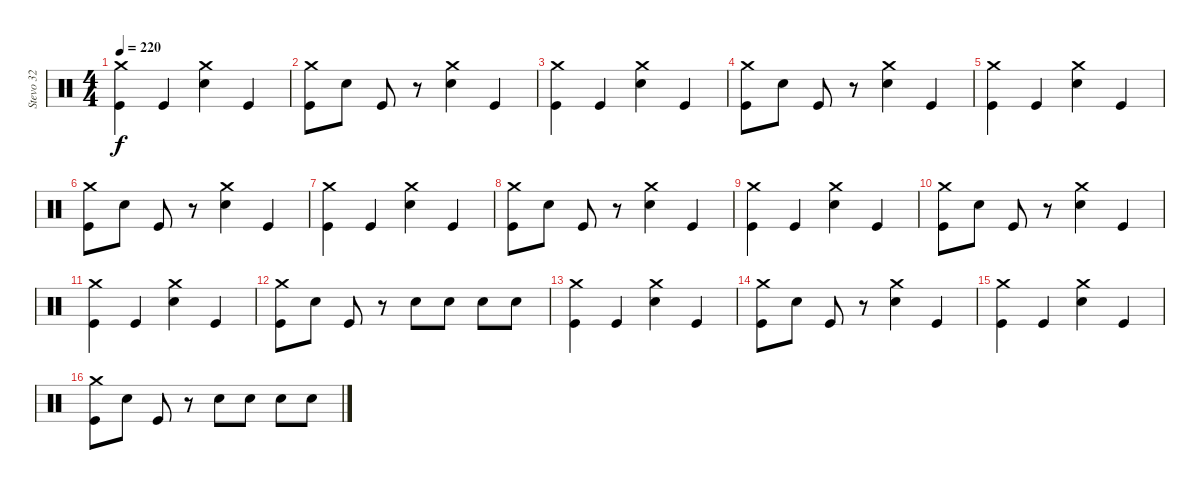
\track ("Stevo 32" "Stevo 32") {instrument percussion}
\staff {score}
\articulation defaults
\ts (4 4)
\tempo 220
\clef neutral
\ks c
("Crash medium (hit)" "Kick (hit)").4{dy f} "Kick (hit)".4 ("Crash medium (hit)" "Snare (hit) 2").4 "Kick (hit)".4 |
("Crash medium (hit)" "Kick (hit)").8 "Snare (hit) 2".8 "Kick (hit)".8 r.8 ("Crash medium (hit)" "Snare (hit) 2").4 "Kick (hit)".4 |
("Crash medium (hit)" "Kick (hit)").4 "Kick (hit)".4 ("Crash medium (hit)" "Snare (hit) 2").4 "Kick (hit)".4 |
("Crash medium (hit)" "Kick (hit)").8 "Snare (hit) 2".8 "Kick (hit)".8 r.8 ("Crash medium (hit)" "Snare (hit) 2").4 "Kick (hit)".4 |
("Crash medium (hit)" "Kick (hit)").4 "Kick (hit)".4 ("Crash medium (hit)" "Snare (hit) 2").4 "Kick (hit)".4 |
("Crash medium (hit)" "Kick (hit)").8 "Snare (hit) 2".8 "Kick (hit)".8 r.8 ("Crash medium (hit)" "Snare (hit) 2").4 "Kick (hit)".4 |
("Crash medium (hit)" "Kick (hit)").4 "Kick (hit)".4 ("Crash medium (hit)" "Snare (hit) 2").4 "Kick (hit)".4 |
("Crash medium (hit)" "Kick (hit)").8 "Snare (hit) 2".8 "Kick (hit)".8 r.8 ("Crash medium (hit)" "Snare (hit) 2").4 "Kick (hit)".4 |
("Crash medium (hit)" "Kick (hit)").4 "Kick (hit)".4 ("Crash medium (hit)" "Snare (hit) 2").4 "Kick (hit)".4 |
("Crash medium (hit)" "Kick (hit)").8 "Snare (hit) 2".8 "Kick (hit)".8 r.8 ("Crash medium (hit)" "Snare (hit) 2").4 "Kick (hit)".4 |
("Crash medium (hit)" "Kick (hit)").4 "Kick (hit)".4 ("Crash medium (hit)" "Snare (hit) 2").4 "Kick (hit)".4 |
("Crash medium (hit)" "Kick (hit)").8 "Snare (hit) 2".8 "Kick (hit)".8 r.8 "Snare (hit) 2".8 "Snare (hit) 2".8 "Snare (hit) 2".8 "Snare (hit) 2".8 |
("Crash medium (hit)" "Kick (hit)").4 "Kick (hit)".4 ("Crash medium (hit)" "Snare (hit) 2").4 "Kick (hit)".4 |
("Crash medium (hit)" "Kick (hit)").8 "Snare (hit) 2".8 "Kick (hit)".8 r.8 ("Crash medium (hit)" "Snare (hit) 2").4 "Kick (hit)".4 |
("Crash medium (hit)" "Kick (hit)").4 "Kick (hit)".4 ("Crash medium (hit)" "Snare (hit) 2").4 "Kick (hit)".4 |
("Crash medium (hit)" "Kick (hit)").8 "Snare (hit) 2".8 "Kick (hit)".8 r.8 "Snare (hit) 2".8 "Snare (hit) 2".8 "Snare (hit) 2".8 "Snare (hit) 2".8
